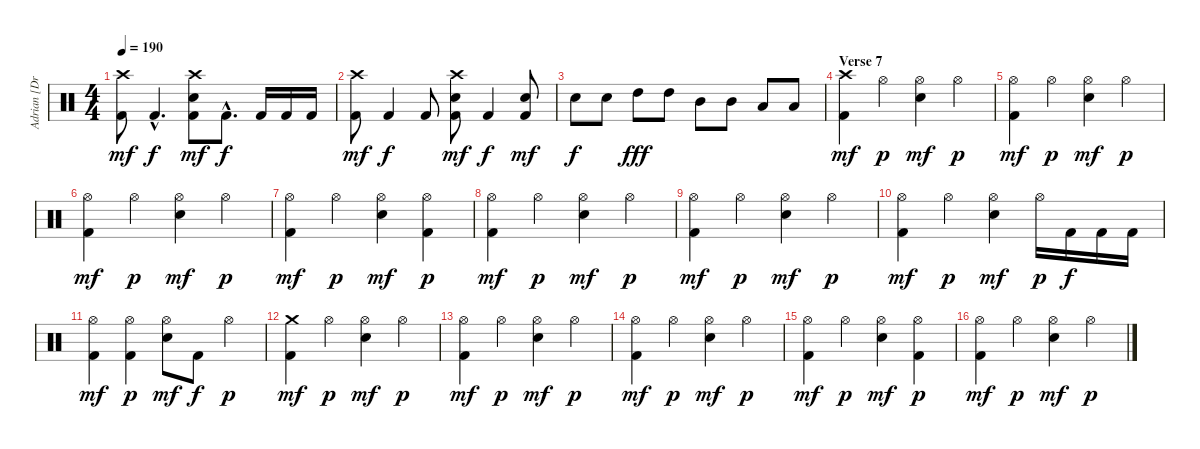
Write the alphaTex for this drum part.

\track ("Adrian [Drums]" "Adrian [Dr") {instrument percussion}
\staff {score}
\articulation defaults
\ts (4 4)
\tempo 190
\clef neutral
\ks c
("Crash high (hit)" "Kick (hit) 2").8{dy mf} "Kick (hit) 2"{hac}.4{d dy f} ("Crash high (hit)" "Electric Snare (hit)" "Kick (hit) 2").8{dy mf} "Kick (hit) 2"{hac}.8{d dy f} "Kick (hit) 2".16 "Kick (hit) 2".16 "Kick (hit) 2".16 |
("Crash high (hit)" "Kick (hit) 2").8{dy mf} "Kick (hit) 2".4{dy f} "Kick (hit) 2".8 ("Crash high (hit)" "Electric Snare (hit)" "Kick (hit) 2").8{dy mf} "Kick (hit) 2".4{dy f} ("Electric Snare (hit)" "Kick (hit) 2").8{dy mf} |
"Electric Snare (hit)".8{dy f} "Electric Snare (hit)".8 "High Tom (hit)".8{dy fff} "High Tom (hit)".8 "Mid Tom (hit)".8 "Mid Tom (hit)".8 "Low Tom (hit)".8 "Low Tom (hit)".8 |
\section ("" "Verse 7")
("Crash high (hit)" "Kick (hit) 2").4{dy mf} "Hi-Hat (open)".4{dy p} ("Hi-Hat (open)" "Electric Snare (hit)").4{dy mf} "Hi-Hat (open)".4{dy p} |
("Hi-Hat (open)" "Kick (hit) 2").4{dy mf} "Hi-Hat (open)".4{dy p} ("Hi-Hat (open)" "Electric Snare (hit)").4{dy mf} "Hi-Hat (open)".4{dy p} |
("Hi-Hat (open)" "Kick (hit) 2").4{dy mf} "Hi-Hat (open)".4{dy p} ("Hi-Hat (open)" "Electric Snare (hit)").4{dy mf} "Hi-Hat (open)".4{dy p} |
("Hi-Hat (open)" "Kick (hit) 2").4{dy mf} "Hi-Hat (open)".4{dy p} ("Hi-Hat (open)" "Electric Snare (hit)").4{dy mf} ("Hi-Hat (open)" "Kick (hit) 2").4{dy p} |
("Hi-Hat (open)" "Kick (hit) 2").4{dy mf} "Hi-Hat (open)".4{dy p} ("Hi-Hat (open)" "Electric Snare (hit)").4{dy mf} "Hi-Hat (open)".4{dy p} |
("Hi-Hat (open)" "Kick (hit) 2").4{dy mf} "Hi-Hat (open)".4{dy p} ("Hi-Hat (open)" "Electric Snare (hit)").4{dy mf} "Hi-Hat (open)".4{dy p} |
("Hi-Hat (open)" "Kick (hit) 2").4{dy mf} "Hi-Hat (open)".4{dy p} ("Hi-Hat (open)" "Electric Snare (hit)").4{dy mf} "Hi-Hat (open)".16{dy p} "Kick (hit) 2".16{dy f} "Kick (hit) 2".16 "Kick (hit) 2".16 |
("Hi-Hat (open)" "Kick (hit) 2").4{dy mf} ("Hi-Hat (open)" "Kick (hit) 2").4{dy p} ("Hi-Hat (open)" "Electric Snare (hit)").8{dy mf} "Kick (hit) 2".8{dy f} "Hi-Hat (open)".4{dy p} |
("Crash medium (hit)" "Kick (hit) 2").4{dy mf} "Hi-Hat (open)".4{dy p} ("Hi-Hat (open)" "Electric Snare (hit)").4{dy mf} "Hi-Hat (open)".4{dy p} |
("Hi-Hat (open)" "Kick (hit) 2").4{dy mf} "Hi-Hat (open)".4{dy p} ("Hi-Hat (open)" "Electric Snare (hit)").4{dy mf} "Hi-Hat (open)".4{dy p} |
("Hi-Hat (open)" "Kick (hit) 2").4{dy mf} "Hi-Hat (open)".4{dy p} ("Hi-Hat (open)" "Electric Snare (hit)").4{dy mf} "Hi-Hat (open)".4{dy p} |
("Hi-Hat (open)" "Kick (hit) 2").4{dy mf} "Hi-Hat (open)".4{dy p} ("Hi-Hat (open)" "Electric Snare (hit)").4{dy mf} ("Hi-Hat (open)" "Kick (hit) 2").4{dy p} |
("Hi-Hat (open)" "Kick (hit) 2").4{dy mf} "Hi-Hat (open)".4{dy p} ("Hi-Hat (open)" "Electric Snare (hit)").4{dy mf} "Hi-Hat (open)".4{dy p}
